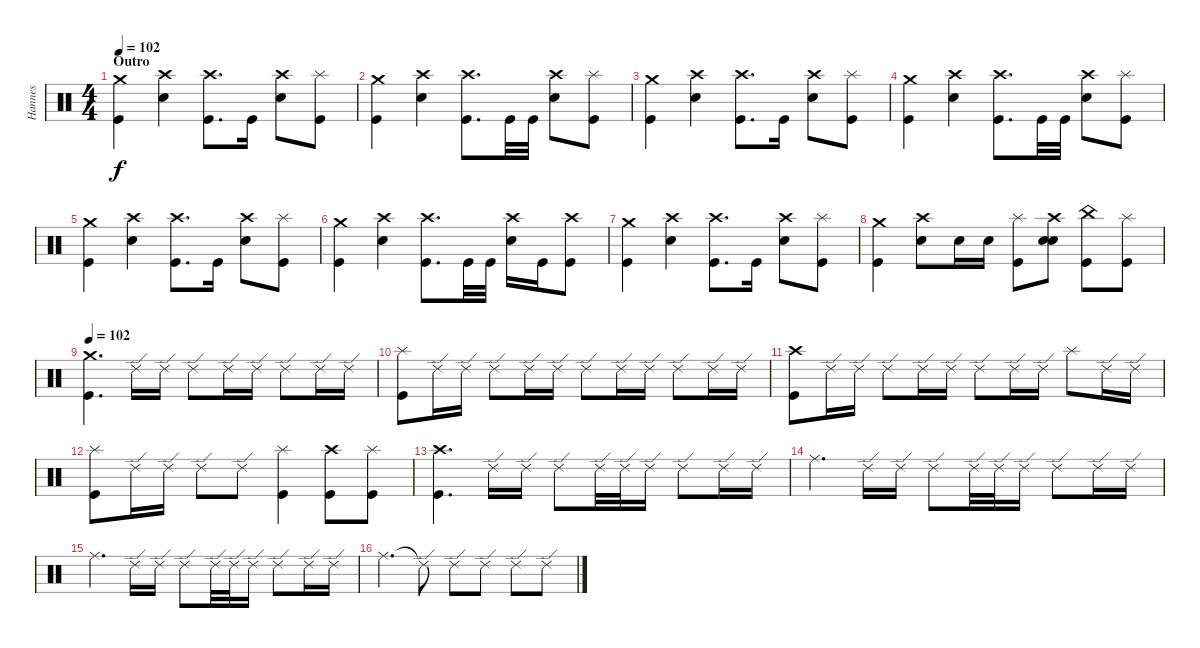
\track ("Hannes" "Hannes") {instrument percussion}
\staff {score}
\articulation defaults
\ts (4 4)
\section ("" "Outro")
\tempo 102
\clef neutral
\ks c
("Crash medium (hit)" "Kick (hit)").4{dy f} ("Crash high (hit)" "Electric Snare (hit)").4 ("Crash high (hit)" "Kick (hit)").8{d} "Kick (hit)".16 ("Crash high (hit)" "Electric Snare (hit)").8 ("Splash (hit)" "Kick (hit)").8 |
("Crash medium (hit)" "Kick (hit)").4 ("Crash high (hit)" "Electric Snare (hit)").4 ("Crash high (hit)" "Kick (hit)").8{d} "Kick (hit)".32 "Kick (hit)".32 ("Crash high (hit)" "Electric Snare (hit)").8 ("Splash (hit)" "Kick (hit)").8 |
("Crash medium (hit)" "Kick (hit)").4 ("Crash high (hit)" "Electric Snare (hit)").4 ("Crash high (hit)" "Kick (hit)").8{d} "Kick (hit)".16 ("Crash high (hit)" "Electric Snare (hit)").8 ("Splash (hit)" "Kick (hit)").8 |
("Crash medium (hit)" "Kick (hit)").4 ("Crash high (hit)" "Electric Snare (hit)").4 ("Crash high (hit)" "Kick (hit)").8{d} "Kick (hit)".32 "Kick (hit)".32 ("Crash high (hit)" "Electric Snare (hit)").8 ("Splash (hit)" "Kick (hit)").8 |
("Crash medium (hit)" "Kick (hit)").4 ("Crash high (hit)" "Electric Snare (hit)").4 ("Crash high (hit)" "Kick (hit)").8{d} "Kick (hit)".16 ("Crash high (hit)" "Electric Snare (hit)").8 ("Splash (hit)" "Kick (hit)").8 |
("Crash medium (hit)" "Kick (hit)").4 ("Crash high (hit)" "Electric Snare (hit)").4 ("Crash high (hit)" "Kick (hit)").8{d} "Kick (hit)".32 "Kick (hit)".32 ("Crash high (hit)" "Electric Snare (hit)").16 "Kick (hit)".16 ("Crash high (hit)" "Kick (hit)").8 |
("Crash medium (hit)" "Kick (hit)").4 ("Crash high (hit)" "Electric Snare (hit)").4 ("Crash high (hit)" "Kick (hit)").8{d} "Kick (hit)".16 ("Crash high (hit)" "Electric Snare (hit)").8 ("Splash (hit)" "Kick (hit)").8 |
("Crash medium (hit)" "Kick (hit)").4 ("Crash high (hit)" "Electric Snare (hit)").8 "Electric Snare (hit)".16 "Electric Snare (hit)".16 ("Splash (hit)" "Kick (hit)").8 ("Crash high (hit)" "Electric Snare (hit)" "Electric Snare (hit)").8 ("China (hit)" "Kick (hit)").8 ("Splash (hit)" "Kick (hit)").8 |
\tempo 102
("Crash medium (hit)" "Kick (hit)").4{d} "Ride (edge) 2".16 "Ride (edge) 2".16 "Ride (edge) 2".8 "Ride (edge) 2".16 "Ride (edge) 2".16 "Ride (edge) 2".8 "Ride (edge) 2".16 "Ride (edge) 2".16 |
("Splash (hit)" "Kick (hit)").8 "Ride (edge) 2".16 "Ride (edge) 2".16 "Ride (edge) 2".8 "Ride (edge) 2".16 "Ride (edge) 2".16 "Ride (edge) 2".8 "Ride (edge) 2".16 "Ride (edge) 2".16 "Ride (edge) 2".8 "Ride (edge) 2".16 "Ride (edge) 2".16 |
("Crash high (hit)" "Kick (hit)").8 "Ride (edge) 2".16 "Ride (edge) 2".16 "Ride (edge) 2".8 "Ride (edge) 2".16 "Ride (edge) 2".16 "Ride (edge) 2".8 "Ride (edge) 2".16 "Ride (edge) 2".16 "Splash (hit)".8 "Ride (edge) 2".16 "Ride (edge) 2".16 |
("Splash (hit)" "Kick (hit)").8 "Ride (edge) 2".16 "Ride (edge) 2".16 "Ride (edge) 2".8 "Ride (edge) 2".8 ("Splash (hit)" "Kick (hit)").4 ("Crash high (hit)" "Kick (hit)").8 ("Splash (hit)" "Kick (hit)").8 |
("Crash high (hit)" "Kick (hit)").4{d} "Ride (edge) 2".16 "Ride (edge) 2".16 "Ride (edge) 2".8 "Ride (edge) 2".32 "Ride (edge) 2".32 "Ride (edge) 2".16 "Ride (edge) 2".8 "Ride (edge) 2".16 "Ride (edge) 2".16 |
"Ride (middle)".4{d} "Ride (edge) 2".16 "Ride (edge) 2".16 "Ride (edge) 2".8 "Ride (edge) 2".32 "Ride (edge) 2".32 "Ride (edge) 2".16 "Ride (edge) 2".8 "Ride (edge) 2".16 "Ride (edge) 2".16 |
"Ride (middle)".4{d} "Ride (edge) 2".16 "Ride (edge) 2".16 "Ride (edge) 2".8 "Ride (edge) 2".32 "Ride (edge) 2".32 "Ride (edge) 2".16 "Ride (edge) 2".8 "Ride (edge) 2".16 "Ride (edge) 2".16 |
"Ride (middle)".4{d} "Ride (edge) 2"{t}.8 "Ride (edge) 2".8 "Ride (edge) 2".8 "Ride (edge) 2".8 "Ride (edge) 2".8
